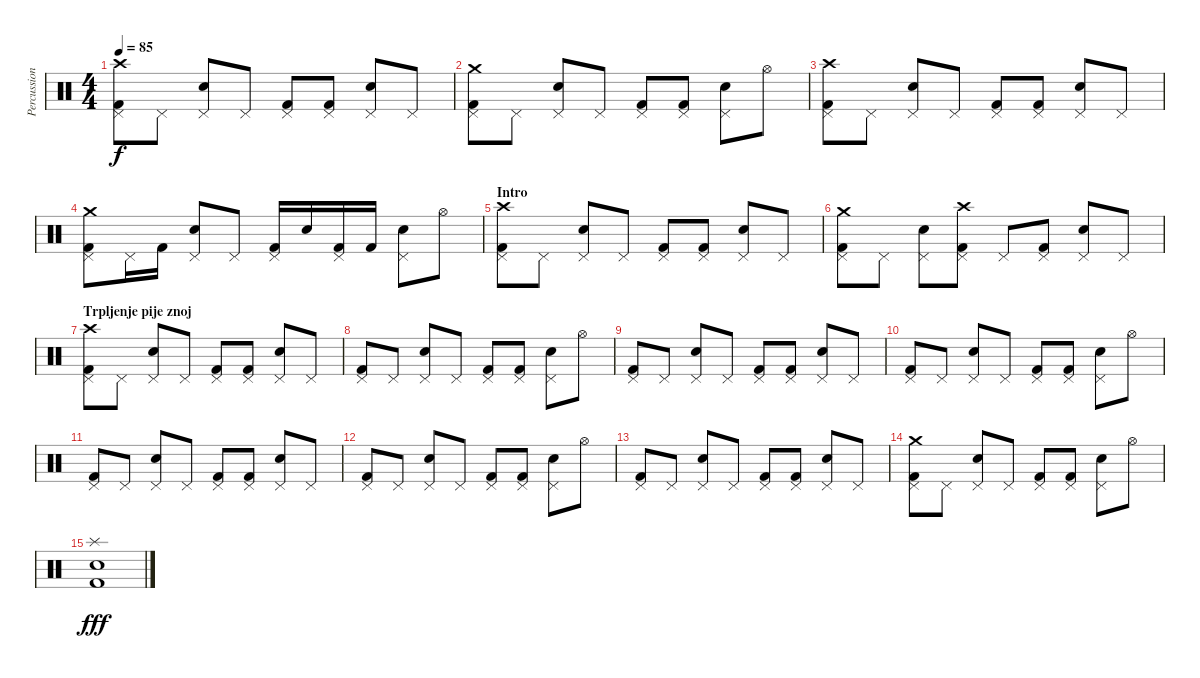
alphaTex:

\track ("Percussion" "Percussion") {instrument percussion}
\staff {score}
\articulation defaults
\ts (4 4)
\tempo 85
\clef neutral
\ks c
("Crash high (hit)" "Pedal Hi-Hat (hit)" "Kick (hit) 2").8{dy f} "Pedal Hi-Hat (hit)".8 ("Pedal Hi-Hat (hit)" "Snare (hit) 2").8 "Pedal Hi-Hat (hit)".8 ("Pedal Hi-Hat (hit)" "Kick (hit) 2").8 ("Pedal Hi-Hat (hit)" "Kick (hit) 2").8 ("Pedal Hi-Hat (hit)" "Snare (hit) 2").8 "Pedal Hi-Hat (hit)".8 |
("Crash medium (hit)" "Pedal Hi-Hat (hit)" "Kick (hit) 2").8 "Pedal Hi-Hat (hit)".8 ("Pedal Hi-Hat (hit)" "Snare (hit) 2").8 "Pedal Hi-Hat (hit)".8 ("Pedal Hi-Hat (hit)" "Kick (hit) 2").8 ("Pedal Hi-Hat (hit)" "Kick (hit) 2").8 ("Pedal Hi-Hat (hit)" "Snare (hit) 2").8 "Hi-Hat (open)".8 |
("Crash high (hit)" "Pedal Hi-Hat (hit)" "Kick (hit) 2").8 "Pedal Hi-Hat (hit)".8 ("Pedal Hi-Hat (hit)" "Snare (hit) 2").8 "Pedal Hi-Hat (hit)".8 ("Pedal Hi-Hat (hit)" "Kick (hit) 2").8 ("Pedal Hi-Hat (hit)" "Kick (hit) 2").8 ("Pedal Hi-Hat (hit)" "Snare (hit) 2").8 "Pedal Hi-Hat (hit)".8 |
("Crash medium (hit)" "Pedal Hi-Hat (hit)" "Kick (hit) 2").8 "Pedal Hi-Hat (hit)".16 "Kick (hit) 2".16 ("Pedal Hi-Hat (hit)" "Snare (hit) 2").8 "Pedal Hi-Hat (hit)".8 ("Pedal Hi-Hat (hit)" "Kick (hit) 2").16 "Snare (hit) 2".16 ("Pedal Hi-Hat (hit)" "Kick (hit) 2").16 "Kick (hit) 2".16 ("Pedal Hi-Hat (hit)" "Snare (hit) 2").8 "Hi-Hat (open)".8 |
\section ("" "Intro")
("Crash high (hit)" "Pedal Hi-Hat (hit)" "Kick (hit) 2").8 "Pedal Hi-Hat (hit)".8 ("Pedal Hi-Hat (hit)" "Snare (hit) 2").8 "Pedal Hi-Hat (hit)".8 ("Pedal Hi-Hat (hit)" "Kick (hit) 2").8 ("Pedal Hi-Hat (hit)" "Kick (hit) 2").8 ("Pedal Hi-Hat (hit)" "Snare (hit) 2").8 "Pedal Hi-Hat (hit)".8 |
("Crash medium (hit)" "Pedal Hi-Hat (hit)" "Kick (hit) 2").8 "Pedal Hi-Hat (hit)".8 ("Pedal Hi-Hat (hit)" "Snare (hit) 2").8 ("Crash high (hit)" "Pedal Hi-Hat (hit)" "Kick (hit) 2").8 "Pedal Hi-Hat (hit)".8 ("Pedal Hi-Hat (hit)" "Kick (hit) 2").8 ("Pedal Hi-Hat (hit)" "Snare (hit) 2").8 "Pedal Hi-Hat (hit)".8 |
\section ("" "Trpljenje pije znoj")
("Crash high (hit)" "Pedal Hi-Hat (hit)" "Kick (hit) 2").8 "Pedal Hi-Hat (hit)".8 ("Pedal Hi-Hat (hit)" "Snare (hit) 2").8 "Pedal Hi-Hat (hit)".8 ("Pedal Hi-Hat (hit)" "Kick (hit) 2").8 ("Pedal Hi-Hat (hit)" "Kick (hit) 2").8 ("Pedal Hi-Hat (hit)" "Snare (hit) 2").8 "Pedal Hi-Hat (hit)".8 |
("Pedal Hi-Hat (hit)" "Kick (hit) 2").8 "Pedal Hi-Hat (hit)".8 ("Pedal Hi-Hat (hit)" "Snare (hit) 2").8 "Pedal Hi-Hat (hit)".8 ("Pedal Hi-Hat (hit)" "Kick (hit) 2").8 ("Pedal Hi-Hat (hit)" "Kick (hit) 2").8 ("Pedal Hi-Hat (hit)" "Snare (hit) 2").8 "Hi-Hat (open)".8 |
("Pedal Hi-Hat (hit)" "Kick (hit) 2").8 "Pedal Hi-Hat (hit)".8 ("Pedal Hi-Hat (hit)" "Snare (hit) 2").8 "Pedal Hi-Hat (hit)".8 ("Pedal Hi-Hat (hit)" "Kick (hit) 2").8 ("Pedal Hi-Hat (hit)" "Kick (hit) 2").8 ("Pedal Hi-Hat (hit)" "Snare (hit) 2").8 "Pedal Hi-Hat (hit)".8 |
("Pedal Hi-Hat (hit)" "Kick (hit) 2").8 "Pedal Hi-Hat (hit)".8 ("Pedal Hi-Hat (hit)" "Snare (hit) 2").8 "Pedal Hi-Hat (hit)".8 ("Pedal Hi-Hat (hit)" "Kick (hit) 2").8 ("Pedal Hi-Hat (hit)" "Kick (hit) 2").8 ("Pedal Hi-Hat (hit)" "Snare (hit) 2").8 "Hi-Hat (open)".8 |
("Pedal Hi-Hat (hit)" "Kick (hit) 2").8 "Pedal Hi-Hat (hit)".8 ("Pedal Hi-Hat (hit)" "Snare (hit) 2").8 "Pedal Hi-Hat (hit)".8 ("Pedal Hi-Hat (hit)" "Kick (hit) 2").8 ("Pedal Hi-Hat (hit)" "Kick (hit) 2").8 ("Pedal Hi-Hat (hit)" "Snare (hit) 2").8 "Pedal Hi-Hat (hit)".8 |
("Pedal Hi-Hat (hit)" "Kick (hit) 2").8 "Pedal Hi-Hat (hit)".8 ("Pedal Hi-Hat (hit)" "Snare (hit) 2").8 "Pedal Hi-Hat (hit)".8 ("Pedal Hi-Hat (hit)" "Kick (hit) 2").8 ("Pedal Hi-Hat (hit)" "Kick (hit) 2").8 ("Pedal Hi-Hat (hit)" "Snare (hit) 2").8 "Hi-Hat (open)".8 |
("Pedal Hi-Hat (hit)" "Kick (hit) 2").8 "Pedal Hi-Hat (hit)".8 ("Pedal Hi-Hat (hit)" "Snare (hit) 2").8 "Pedal Hi-Hat (hit)".8 ("Pedal Hi-Hat (hit)" "Kick (hit) 2").8 ("Pedal Hi-Hat (hit)" "Kick (hit) 2").8 ("Pedal Hi-Hat (hit)" "Snare (hit) 2").8 "Pedal Hi-Hat (hit)".8 |
("Crash medium (hit)" "Pedal Hi-Hat (hit)" "Kick (hit) 2").8 "Pedal Hi-Hat (hit)".8 ("Pedal Hi-Hat (hit)" "Snare (hit) 2").8 "Pedal Hi-Hat (hit)".8 ("Pedal Hi-Hat (hit)" "Kick (hit) 2").8 ("Pedal Hi-Hat (hit)" "Kick (hit) 2").8 ("Pedal Hi-Hat (hit)" "Snare (hit) 2").8 "Hi-Hat (open)".8 |
("Splash (hit)" "Snare (hit) 2" "Kick (hit) 2").1{dy fff}
